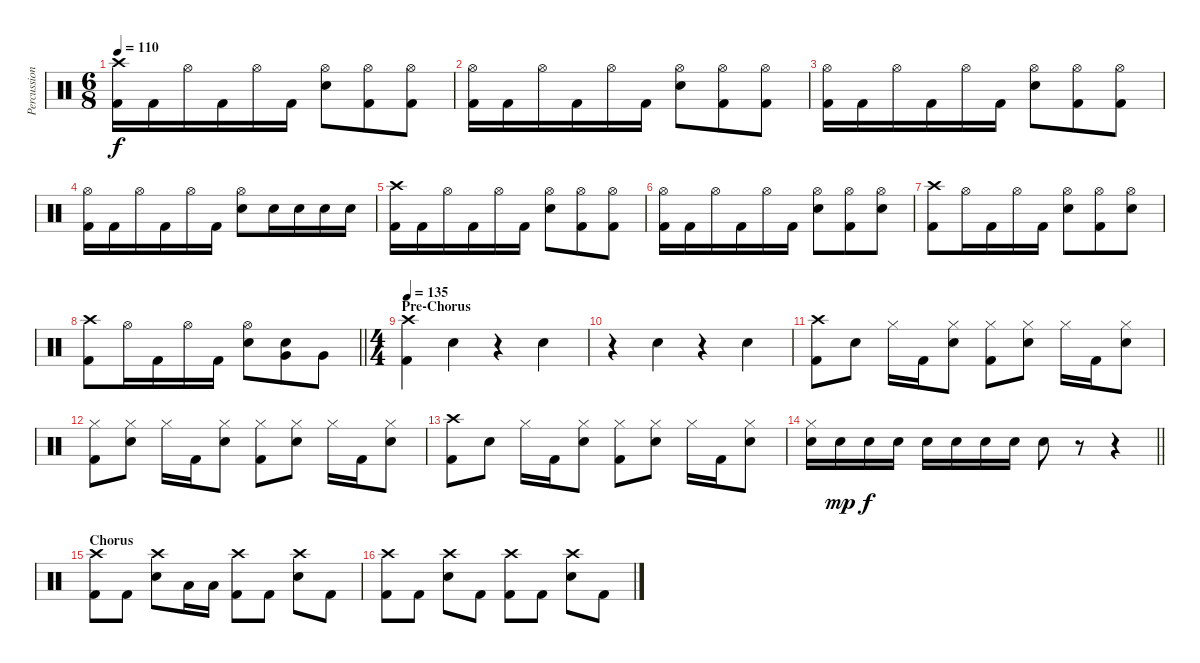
\track ("Percussion" "Percussion") {instrument percussion}
\staff {score}
\articulation defaults
\ts (6 8)
\tempo 110
\clef neutral
\ks c
("Kick (hit) 2" "Crash high (hit)").16{dy f} "Kick (hit) 2".16 "Hi-Hat (open)".16 "Kick (hit) 2".16 "Hi-Hat (open)".16 "Kick (hit) 2".16 ("Snare (hit) 2" "Hi-Hat (open)").8 ("Kick (hit) 2" "Hi-Hat (open)").8 ("Kick (hit) 2" "Hi-Hat (open)").8 |
("Kick (hit) 2" "Hi-Hat (open)").16 "Kick (hit) 2".16 "Hi-Hat (open)".16 "Kick (hit) 2".16 "Hi-Hat (open)".16 "Kick (hit) 2".16 ("Snare (hit) 2" "Hi-Hat (open)").8 ("Kick (hit) 2" "Hi-Hat (open)").8 ("Kick (hit) 2" "Hi-Hat (open)").8 |
("Kick (hit) 2" "Hi-Hat (open)").16 "Kick (hit) 2".16 "Hi-Hat (open)".16 "Kick (hit) 2".16 "Hi-Hat (open)".16 "Kick (hit) 2".16 ("Snare (hit) 2" "Hi-Hat (open)").8 ("Kick (hit) 2" "Hi-Hat (open)").8 ("Kick (hit) 2" "Hi-Hat (open)").8 |
("Kick (hit) 2" "Hi-Hat (open)").16 "Kick (hit) 2".16 "Hi-Hat (open)".16 "Kick (hit) 2".16 "Hi-Hat (open)".16 "Kick (hit) 2".16 ("Snare (hit) 2" "Hi-Hat (open)").8 "Snare (hit) 2".16 "Snare (hit) 2".16 "Snare (hit) 2".16 "Snare (hit) 2".16 |
("Kick (hit) 2" "Crash high (hit)").16 "Kick (hit) 2".16 "Hi-Hat (open)".16 "Kick (hit) 2".16 "Hi-Hat (open)".16 "Kick (hit) 2".16 ("Snare (hit) 2" "Hi-Hat (open)").8 ("Kick (hit) 2" "Hi-Hat (open)").8 ("Kick (hit) 2" "Hi-Hat (open)").8 |
("Kick (hit) 2" "Hi-Hat (open)").16 "Kick (hit) 2".16 "Hi-Hat (open)".16 "Kick (hit) 2".16 "Hi-Hat (open)".16 "Kick (hit) 2".16 ("Snare (hit) 2" "Hi-Hat (open)").8 ("Kick (hit) 2" "Hi-Hat (open)").8 ("Snare (hit) 2" "Hi-Hat (open)").8 |
("Kick (hit) 2" "Crash high (hit)").8 "Hi-Hat (open)".16 "Kick (hit) 2".16 "Hi-Hat (open)".16 "Kick (hit) 2".16 ("Snare (hit) 2" "Hi-Hat (open)").8 ("Kick (hit) 2" "Hi-Hat (open)").8 ("Snare (hit) 2" "Hi-Hat (open)").8 |
\barLineRight lightlight
("Kick (hit) 2" "Crash high (hit)").8 "Hi-Hat (open)".16 "Kick (hit) 2".16 "Hi-Hat (open)".16 "Kick (hit) 2".16 ("Snare (hit) 2" "Hi-Hat (open)").8 ("Snare (hit) 2" "Very Low Tom (hit)").8 "Very Low Tom (hit)".8 |
\ts (4 4)
\section ("" "Pre-Chorus")
\tempo 135
("Crash high (hit)" "Kick (hit) 2").4 "Snare (hit) 2".4 r.4 "Snare (hit) 2".4 |
r.4 "Snare (hit) 2".4 r.4 "Snare (hit) 2".4 |
("Crash high (hit)" "Kick (hit) 2").8 "Snare (hit) 2".8 "Hi-Hat (closed)".16 "Kick (hit) 2".16 ("Snare (hit) 2" "Hi-Hat (closed)").8 ("Hi-Hat (closed)" "Kick (hit) 2").8 ("Snare (hit) 2" "Hi-Hat (closed)").8 "Hi-Hat (closed)".16 "Kick (hit) 2".16 ("Snare (hit) 2" "Hi-Hat (closed)").8 |
("Hi-Hat (closed)" "Kick (hit) 2").8 ("Snare (hit) 2" "Hi-Hat (closed)").8 "Hi-Hat (closed)".16 "Kick (hit) 2".16 ("Snare (hit) 2" "Hi-Hat (closed)").8 ("Hi-Hat (closed)" "Kick (hit) 2").8 ("Snare (hit) 2" "Hi-Hat (closed)").8 "Hi-Hat (closed)".16 "Kick (hit) 2".16 ("Snare (hit) 2" "Hi-Hat (closed)").8 |
("Crash high (hit)" "Kick (hit) 2").8 "Snare (hit) 2".8 "Hi-Hat (closed)".16 "Kick (hit) 2".16 ("Snare (hit) 2" "Hi-Hat (closed)").8 ("Hi-Hat (closed)" "Kick (hit) 2").8 ("Snare (hit) 2" "Hi-Hat (closed)").8 "Hi-Hat (closed)".16 "Kick (hit) 2".16 ("Snare (hit) 2" "Hi-Hat (closed)").8 |
\barLineRight lightlight
("Hi-Hat (closed)" "Snare (hit) 2").16 "Snare (hit) 2".16{dy mp} "Snare (hit) 2".16{dy f} "Snare (hit) 2".16 "Snare (hit) 2".16 "Snare (hit) 2".16 "Snare (hit) 2".16 "Snare (hit) 2".16 "Snare (hit) 2".8 r.8 r.4 |
\section ("" "Chorus")
("Kick (hit) 2" "Crash high (hit)").8 "Kick (hit) 2".8 ("Snare (hit) 2" "Crash high (hit)").8 "Low Floor Tom (hit)".16 "Low Floor Tom (hit)".16 ("Kick (hit) 2" "Crash high (hit)").8 "Kick (hit) 2".8 ("Snare (hit) 2" "Crash high (hit)").8 "Kick (hit) 2".8 |
("Kick (hit) 2" "Crash high (hit)").8 "Kick (hit) 2".8 ("Snare (hit) 2" "Crash high (hit)").8 "Kick (hit) 2".8 ("Kick (hit) 2" "Crash high (hit)").8 "Kick (hit) 2".8 ("Snare (hit) 2" "Crash high (hit)").8 "Kick (hit) 2".8
